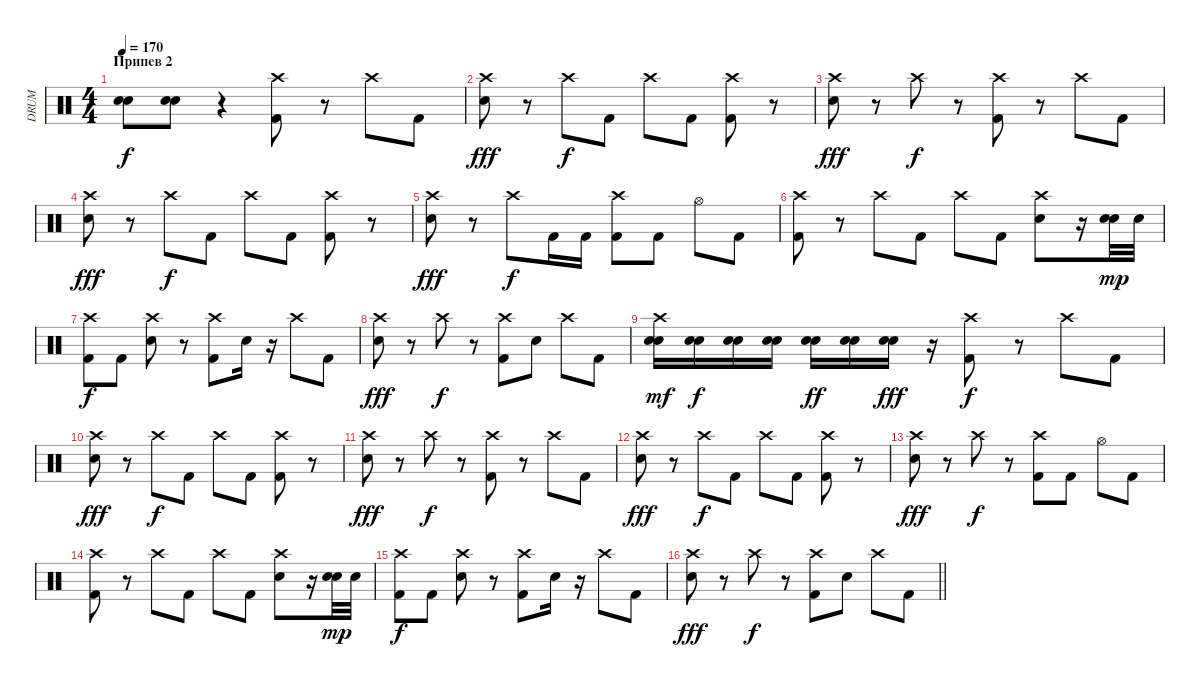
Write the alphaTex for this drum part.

\track ("DRUM" "DRUM") {instrument percussion}
\staff {score}
\articulation defaults
\ts (4 4)
\section ("" "Припев 2")
\tempo 170
\clef neutral
\ks c
("Snare (hit) 2" "Electric Snare (hit)").8{dy f} ("Snare (hit) 2" "Electric Snare (hit)").8 r.4 ("Crash high (hit)" "Kick (hit) 2").8 r.8 "Crash high (hit)".8 "Kick (hit) 2".8 |
("Crash high (hit)" "Snare (hit) 2").8{dy fff} r.8 "Crash high (hit)".8{dy f} "Kick (hit) 2".8 "Crash high (hit)".8 "Kick (hit) 2".8 ("Crash high (hit)" "Kick (hit) 2").8 r.8 |
("Crash high (hit)" "Snare (hit) 2").8{dy fff} r.8 "Crash high (hit)".8{dy f} r.8 ("Crash high (hit)" "Kick (hit) 2").8 r.8 "Crash high (hit)".8 "Kick (hit) 2".8 |
("Crash high (hit)" "Snare (hit) 2").8{dy fff} r.8 "Crash high (hit)".8{dy f} "Kick (hit) 2".8 "Crash high (hit)".8 "Kick (hit) 2".8 ("Crash high (hit)" "Kick (hit) 2").8 r.8 |
("Crash high (hit)" "Snare (hit) 2").8{dy fff} r.8 "Crash high (hit)".8{dy f} "Kick (hit) 2".16 "Kick (hit) 2".16 ("Crash high (hit)" "Kick (hit) 2").8 "Kick (hit) 2".8 "Hi-Hat (open)".8 "Kick (hit) 2".8 |
("Kick (hit) 2" "Crash high (hit)").8 r.8 "Crash high (hit)".8 "Kick (hit) 2".8 "Crash high (hit)".8 "Kick (hit) 2".8 ("Snare (hit) 2" "Crash high (hit)").8 r.16 ("Snare (hit) 2" "Snare (hit) 2").32{dy mp} "Snare (hit) 2".32 |
("Kick (hit) 2" "Crash high (hit)").8{dy f} "Kick (hit) 2".8 ("Snare (hit) 2" "Crash high (hit)").8 r.8 ("Crash high (hit)" "Kick (hit) 2").8 "Electric Snare (hit)".16 r.16 "Crash high (hit)".8 "Kick (hit) 2".8 |
("Snare (hit) 2" "Crash high (hit)").8{dy fff} r.8 "Crash high (hit)".8{dy f} r.8 ("Kick (hit) 2" "Crash high (hit)").8 "Snare (hit) 2".8 "Crash high (hit)".8 "Kick (hit) 2".8 |
("Snare (hit) 2" "Electric Snare (hit)" "Crash high (hit)").16{dy mf} ("Snare (hit) 2" "Electric Snare (hit)").16{dy f} ("Snare (hit) 2" "Electric Snare (hit)").16 ("Snare (hit) 2" "Electric Snare (hit)").16 ("Snare (hit) 2" "Electric Snare (hit)").16{dy ff} ("Snare (hit) 2" "Electric Snare (hit)").16 ("Snare (hit) 2" "Electric Snare (hit)").16{dy fff} r.16 ("Crash high (hit)" "Kick (hit) 2").8{dy f} r.8 "Crash high (hit)".8 "Kick (hit) 2".8 |
("Crash high (hit)" "Snare (hit) 2").8{dy fff} r.8 "Crash high (hit)".8{dy f} "Kick (hit) 2".8 "Crash high (hit)".8 "Kick (hit) 2".8 ("Crash high (hit)" "Kick (hit) 2").8 r.8 |
("Crash high (hit)" "Snare (hit) 2").8{dy fff} r.8 "Crash high (hit)".8{dy f} r.8 ("Crash high (hit)" "Kick (hit) 2").8 r.8 "Crash high (hit)".8 "Kick (hit) 2".8 |
("Crash high (hit)" "Snare (hit) 2").8{dy fff} r.8 "Crash high (hit)".8{dy f} "Kick (hit) 2".8 "Crash high (hit)".8 "Kick (hit) 2".8 ("Crash high (hit)" "Kick (hit) 2").8 r.8 |
("Crash high (hit)" "Snare (hit) 2").8{dy fff} r.8 "Crash high (hit)".8{dy f} r.8 ("Crash high (hit)" "Kick (hit) 2").8 "Kick (hit) 2".8 "Hi-Hat (open)".8 "Kick (hit) 2".8 |
("Kick (hit) 2" "Crash high (hit)").8 r.8 "Crash high (hit)".8 "Kick (hit) 2".8 "Crash high (hit)".8 "Kick (hit) 2".8 ("Snare (hit) 2" "Crash high (hit)").8 r.16 ("Snare (hit) 2" "Snare (hit) 2").32{dy mp} "Snare (hit) 2".32 |
("Kick (hit) 2" "Crash high (hit)").8{dy f} "Kick (hit) 2".8 ("Snare (hit) 2" "Crash high (hit)").8 r.8 ("Crash high (hit)" "Kick (hit) 2").8 "Electric Snare (hit)".16 r.16 "Crash high (hit)".8 "Kick (hit) 2".8 |
\barLineRight lightlight
("Snare (hit) 2" "Crash high (hit)").8{dy fff} r.8 "Crash high (hit)".8{dy f} r.8 ("Kick (hit) 2" "Crash high (hit)").8 "Snare (hit) 2".8 "Crash high (hit)".8 "Kick (hit) 2".8
